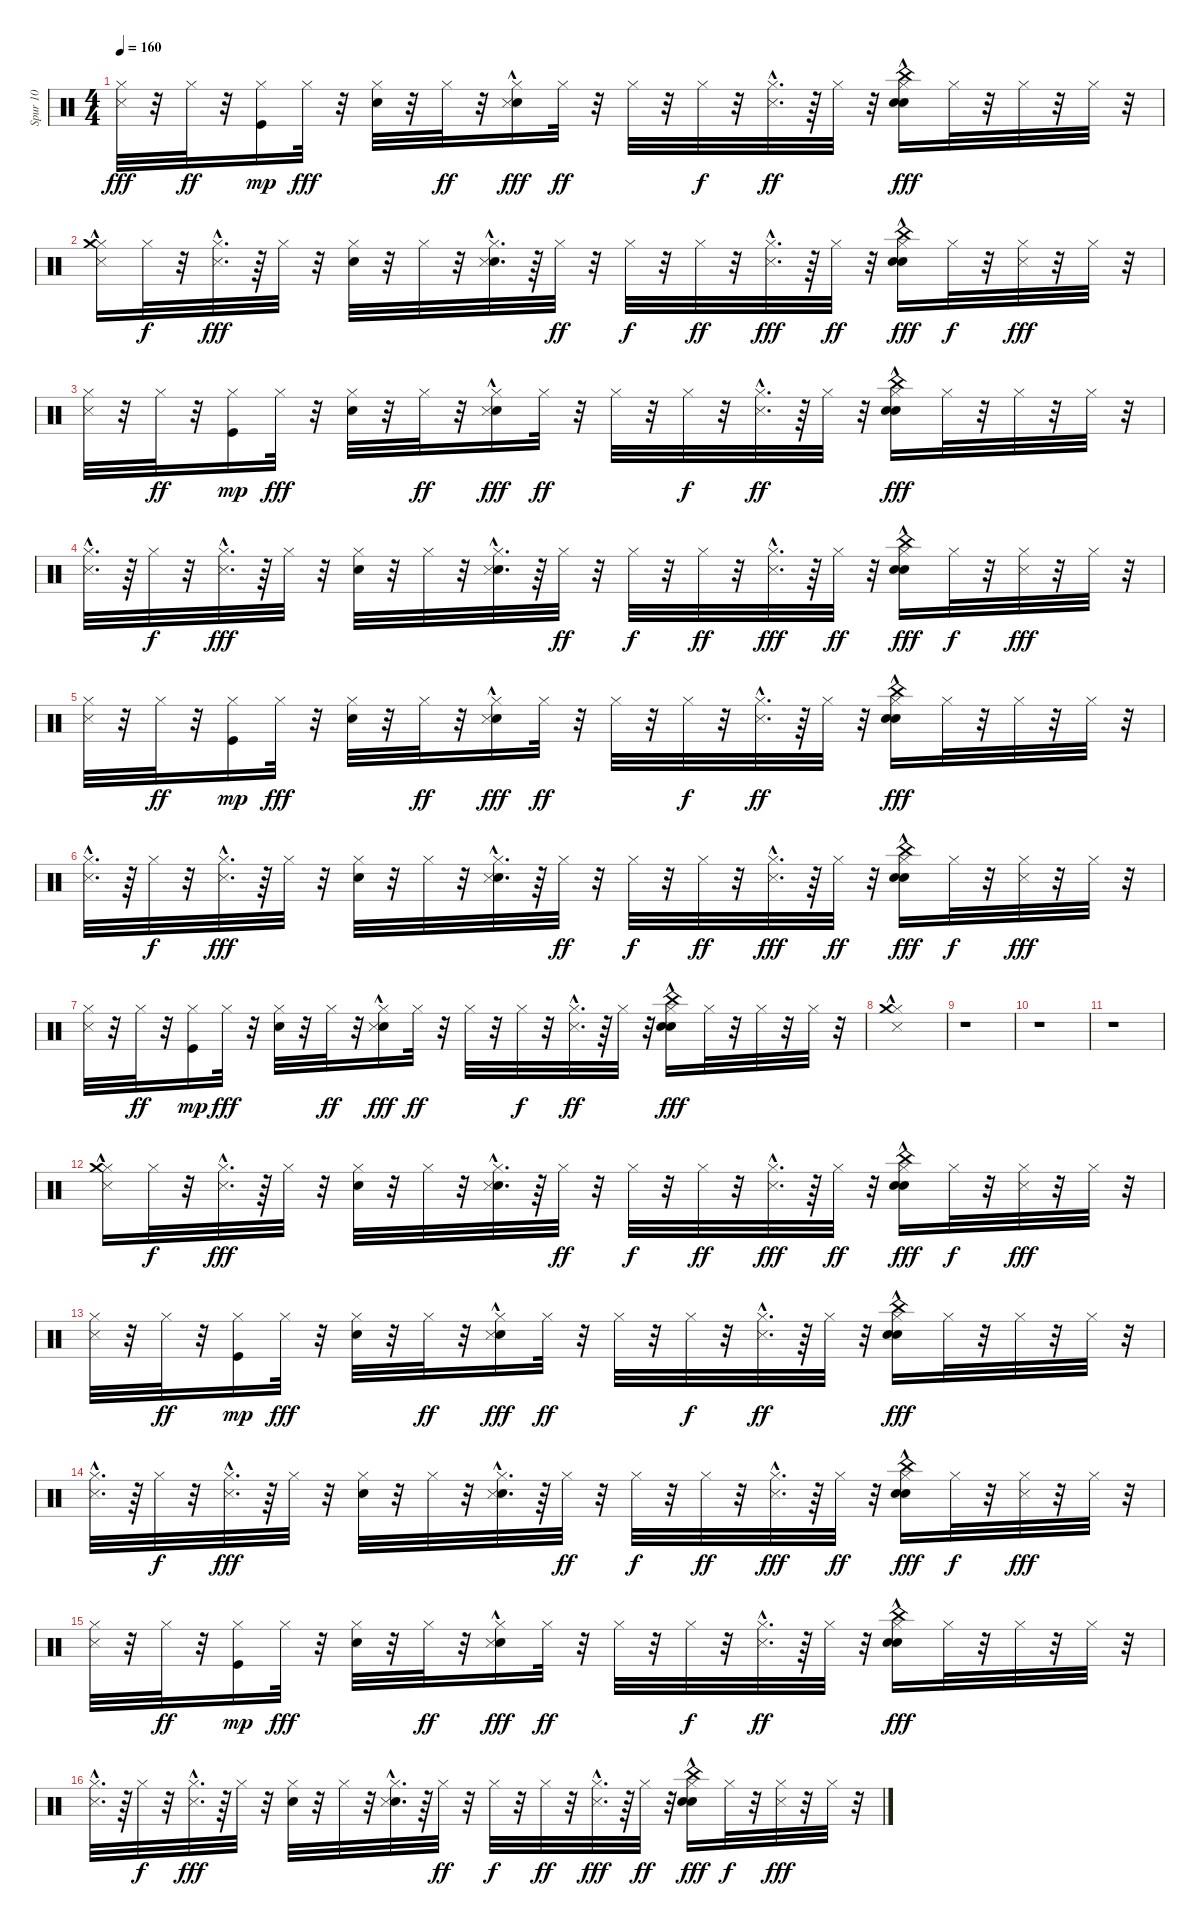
\track ("Spur 10" "Spur 10") {instrument percussion}
\staff {score}
\articulation defaults
\ts (4 4)
\tempo 160
\clef neutral
\ks c
("Hi-Hat (closed)" "Metronome (hit)").32{dy fff} r.32 "Hi-Hat (closed)".32{dy ff} r.32 ("Hi-Hat (closed)" "Kick (hit)").16{dy mp} "Hi-Hat (closed)".32{dy fff} r.32 ("Hi-Hat (closed)" "Snare (hit) 2").32 r.32 "Hi-Hat (closed)".32{dy ff} r.32 ("Hi-Hat (closed)" "Snare (hit) 2" "Metronome (hit)"{hac}).16{dy fff} "Hi-Hat (closed)".32{dy ff} r.32 "Hi-Hat (closed)".32 r.32 "Hi-Hat (closed)".32{dy f} r.32 ("Hi-Hat (closed)" "Metronome (hit)"{hac}).32{d dy ff} r.64 "Hi-Hat (closed)".32 r.32 ("Hi-Hat (closed)" "Snare (hit) 2"{hac} "China (hit)" "Hand Clap (hit)").16{dy fff} "Hi-Hat (closed)".32 r.32 "Hi-Hat (closed)".32 r.32 "Hi-Hat (closed)".32 r.32 |
("Hi-Hat (closed)" "Metronome (hit)"{hac} "Crash medium (hit)").16 "Hi-Hat (closed)".32{dy f} r.32 ("Hi-Hat (closed)" "Metronome (hit)"{hac}).32{d dy fff} r.64 "Hi-Hat (closed)".32 r.32 ("Hi-Hat (closed)" "Snare (hit) 2").32 r.32 "Hi-Hat (closed)".32 r.32 ("Hi-Hat (closed)" "Snare (hit) 2"{hac} "Metronome (hit)"{hac}).32{d} r.64 "Hi-Hat (closed)".32{dy ff} r.32 "Hi-Hat (closed)".32{dy f} r.32 "Hi-Hat (closed)".32{dy ff} r.32 ("Hi-Hat (closed)" "Metronome (hit)"{hac}).32{d dy fff} r.64 "Hi-Hat (closed)".32{dy ff} r.32 ("Hi-Hat (closed)" "Snare (hit) 2"{hac} "China (hit)" "Hand Clap (hit)").16{dy fff} "Hi-Hat (closed)".32{dy f} r.32 ("Hi-Hat (closed)" "Metronome (hit)").32{dy fff} r.32 "Hi-Hat (closed)".32 r.32 |
("Hi-Hat (closed)" "Metronome (hit)").32 r.32 "Hi-Hat (closed)".32{dy ff} r.32 ("Hi-Hat (closed)" "Kick (hit)").16{dy mp} "Hi-Hat (closed)".32{dy fff} r.32 ("Hi-Hat (closed)" "Snare (hit) 2").32 r.32 "Hi-Hat (closed)".32{dy ff} r.32 ("Hi-Hat (closed)" "Snare (hit) 2" "Metronome (hit)"{hac}).16{dy fff} "Hi-Hat (closed)".32{dy ff} r.32 "Hi-Hat (closed)".32 r.32 "Hi-Hat (closed)".32{dy f} r.32 ("Hi-Hat (closed)" "Metronome (hit)"{hac}).32{d dy ff} r.64 "Hi-Hat (closed)".32 r.32 ("Hi-Hat (closed)" "Snare (hit) 2"{hac} "China (hit)" "Hand Clap (hit)").16{dy fff} "Hi-Hat (closed)".32 r.32 "Hi-Hat (closed)".32 r.32 "Hi-Hat (closed)".32 r.32 |
("Hi-Hat (closed)" "Metronome (hit)"{hac}).32{d} r.64 "Hi-Hat (closed)".32{dy f} r.32 ("Hi-Hat (closed)" "Metronome (hit)"{hac}).32{d dy fff} r.64 "Hi-Hat (closed)".32 r.32 ("Hi-Hat (closed)" "Snare (hit) 2").32 r.32 "Hi-Hat (closed)".32 r.32 ("Hi-Hat (closed)" "Snare (hit) 2"{hac} "Metronome (hit)"{hac}).32{d} r.64 "Hi-Hat (closed)".32{dy ff} r.32 "Hi-Hat (closed)".32{dy f} r.32 "Hi-Hat (closed)".32{dy ff} r.32 ("Hi-Hat (closed)" "Metronome (hit)"{hac}).32{d dy fff} r.64 "Hi-Hat (closed)".32{dy ff} r.32 ("Hi-Hat (closed)" "Snare (hit) 2"{hac} "China (hit)" "Hand Clap (hit)").16{dy fff} "Hi-Hat (closed)".32{dy f} r.32 ("Hi-Hat (closed)" "Metronome (hit)").32{dy fff} r.32 "Hi-Hat (closed)".32 r.32 |
("Hi-Hat (closed)" "Metronome (hit)").32 r.32 "Hi-Hat (closed)".32{dy ff} r.32 ("Hi-Hat (closed)" "Kick (hit)").16{dy mp} "Hi-Hat (closed)".32{dy fff} r.32 ("Hi-Hat (closed)" "Snare (hit) 2").32 r.32 "Hi-Hat (closed)".32{dy ff} r.32 ("Hi-Hat (closed)" "Snare (hit) 2" "Metronome (hit)"{hac}).16{dy fff} "Hi-Hat (closed)".32{dy ff} r.32 "Hi-Hat (closed)".32 r.32 "Hi-Hat (closed)".32{dy f} r.32 ("Hi-Hat (closed)" "Metronome (hit)"{hac}).32{d dy ff} r.64 "Hi-Hat (closed)".32 r.32 ("Hi-Hat (closed)" "Snare (hit) 2"{hac} "China (hit)" "Hand Clap (hit)").16{dy fff} "Hi-Hat (closed)".32 r.32 "Hi-Hat (closed)".32 r.32 "Hi-Hat (closed)".32 r.32 |
("Hi-Hat (closed)" "Metronome (hit)"{hac}).32{d} r.64 "Hi-Hat (closed)".32{dy f} r.32 ("Hi-Hat (closed)" "Metronome (hit)"{hac}).32{d dy fff} r.64 "Hi-Hat (closed)".32 r.32 ("Hi-Hat (closed)" "Snare (hit) 2").32 r.32 "Hi-Hat (closed)".32 r.32 ("Hi-Hat (closed)" "Snare (hit) 2"{hac} "Metronome (hit)"{hac}).32{d} r.64 "Hi-Hat (closed)".32{dy ff} r.32 "Hi-Hat (closed)".32{dy f} r.32 "Hi-Hat (closed)".32{dy ff} r.32 ("Hi-Hat (closed)" "Metronome (hit)"{hac}).32{d dy fff} r.64 "Hi-Hat (closed)".32{dy ff} r.32 ("Hi-Hat (closed)" "Snare (hit) 2"{hac} "China (hit)" "Hand Clap (hit)").16{dy fff} "Hi-Hat (closed)".32{dy f} r.32 ("Hi-Hat (closed)" "Metronome (hit)").32{dy fff} r.32 "Hi-Hat (closed)".32 r.32 |
("Hi-Hat (closed)" "Metronome (hit)").32 r.32 "Hi-Hat (closed)".32{dy ff} r.32 ("Hi-Hat (closed)" "Kick (hit)").16{dy mp} "Hi-Hat (closed)".32{dy fff} r.32 ("Hi-Hat (closed)" "Snare (hit) 2").32 r.32 "Hi-Hat (closed)".32{dy ff} r.32 ("Hi-Hat (closed)" "Snare (hit) 2" "Metronome (hit)"{hac}).16{dy fff} "Hi-Hat (closed)".32{dy ff} r.32 "Hi-Hat (closed)".32 r.32 "Hi-Hat (closed)".32{dy f} r.32 ("Hi-Hat (closed)" "Metronome (hit)"{hac}).32{d dy ff} r.64 "Hi-Hat (closed)".32 r.32 ("Hi-Hat (closed)" "Snare (hit) 2"{hac} "China (hit)" "Hand Clap (hit)").16{dy fff} "Hi-Hat (closed)".32 r.32 "Hi-Hat (closed)".32 r.32 "Hi-Hat (closed)".32 r.32 |
("Hi-Hat (closed)" "Metronome (hit)"{hac} "Crash medium (hit)").1 |
r.1 |
r.1 |
r.1 |
("Hi-Hat (closed)" "Metronome (hit)"{hac} "Crash medium (hit)").16 "Hi-Hat (closed)".32{dy f} r.32 ("Hi-Hat (closed)" "Metronome (hit)"{hac}).32{d dy fff} r.64 "Hi-Hat (closed)".32 r.32 ("Hi-Hat (closed)" "Snare (hit) 2").32 r.32 "Hi-Hat (closed)".32 r.32 ("Hi-Hat (closed)" "Snare (hit) 2"{hac} "Metronome (hit)"{hac}).32{d} r.64 "Hi-Hat (closed)".32{dy ff} r.32 "Hi-Hat (closed)".32{dy f} r.32 "Hi-Hat (closed)".32{dy ff} r.32 ("Hi-Hat (closed)" "Metronome (hit)"{hac}).32{d dy fff} r.64 "Hi-Hat (closed)".32{dy ff} r.32 ("Hi-Hat (closed)" "Snare (hit) 2"{hac} "China (hit)" "Hand Clap (hit)").16{dy fff} "Hi-Hat (closed)".32{dy f} r.32 ("Hi-Hat (closed)" "Metronome (hit)").32{dy fff} r.32 "Hi-Hat (closed)".32 r.32 |
("Hi-Hat (closed)" "Metronome (hit)").32 r.32 "Hi-Hat (closed)".32{dy ff} r.32 ("Hi-Hat (closed)" "Kick (hit)").16{dy mp} "Hi-Hat (closed)".32{dy fff} r.32 ("Hi-Hat (closed)" "Snare (hit) 2").32 r.32 "Hi-Hat (closed)".32{dy ff} r.32 ("Hi-Hat (closed)" "Snare (hit) 2" "Metronome (hit)"{hac}).16{dy fff} "Hi-Hat (closed)".32{dy ff} r.32 "Hi-Hat (closed)".32 r.32 "Hi-Hat (closed)".32{dy f} r.32 ("Hi-Hat (closed)" "Metronome (hit)"{hac}).32{d dy ff} r.64 "Hi-Hat (closed)".32 r.32 ("Hi-Hat (closed)" "Snare (hit) 2"{hac} "China (hit)" "Hand Clap (hit)").16{dy fff} "Hi-Hat (closed)".32 r.32 "Hi-Hat (closed)".32 r.32 "Hi-Hat (closed)".32 r.32 |
("Hi-Hat (closed)" "Metronome (hit)"{hac}).32{d} r.64 "Hi-Hat (closed)".32{dy f} r.32 ("Hi-Hat (closed)" "Metronome (hit)"{hac}).32{d dy fff} r.64 "Hi-Hat (closed)".32 r.32 ("Hi-Hat (closed)" "Snare (hit) 2").32 r.32 "Hi-Hat (closed)".32 r.32 ("Hi-Hat (closed)" "Snare (hit) 2"{hac} "Metronome (hit)"{hac}).32{d} r.64 "Hi-Hat (closed)".32{dy ff} r.32 "Hi-Hat (closed)".32{dy f} r.32 "Hi-Hat (closed)".32{dy ff} r.32 ("Hi-Hat (closed)" "Metronome (hit)"{hac}).32{d dy fff} r.64 "Hi-Hat (closed)".32{dy ff} r.32 ("Hi-Hat (closed)" "Snare (hit) 2"{hac} "China (hit)" "Hand Clap (hit)").16{dy fff} "Hi-Hat (closed)".32{dy f} r.32 ("Hi-Hat (closed)" "Metronome (hit)").32{dy fff} r.32 "Hi-Hat (closed)".32 r.32 |
("Hi-Hat (closed)" "Metronome (hit)").32 r.32 "Hi-Hat (closed)".32{dy ff} r.32 ("Hi-Hat (closed)" "Kick (hit)").16{dy mp} "Hi-Hat (closed)".32{dy fff} r.32 ("Hi-Hat (closed)" "Snare (hit) 2").32 r.32 "Hi-Hat (closed)".32{dy ff} r.32 ("Hi-Hat (closed)" "Snare (hit) 2" "Metronome (hit)"{hac}).16{dy fff} "Hi-Hat (closed)".32{dy ff} r.32 "Hi-Hat (closed)".32 r.32 "Hi-Hat (closed)".32{dy f} r.32 ("Hi-Hat (closed)" "Metronome (hit)"{hac}).32{d dy ff} r.64 "Hi-Hat (closed)".32 r.32 ("Hi-Hat (closed)" "Snare (hit) 2"{hac} "China (hit)" "Hand Clap (hit)").16{dy fff} "Hi-Hat (closed)".32 r.32 "Hi-Hat (closed)".32 r.32 "Hi-Hat (closed)".32 r.32 |
("Hi-Hat (closed)" "Metronome (hit)"{hac}).32{d} r.64 "Hi-Hat (closed)".32{dy f} r.32 ("Hi-Hat (closed)" "Metronome (hit)"{hac}).32{d dy fff} r.64 "Hi-Hat (closed)".32 r.32 ("Hi-Hat (closed)" "Snare (hit) 2").32 r.32 "Hi-Hat (closed)".32 r.32 ("Hi-Hat (closed)" "Snare (hit) 2"{hac} "Metronome (hit)"{hac}).32{d} r.64 "Hi-Hat (closed)".32{dy ff} r.32 "Hi-Hat (closed)".32{dy f} r.32 "Hi-Hat (closed)".32{dy ff} r.32 ("Hi-Hat (closed)" "Metronome (hit)"{hac}).32{d dy fff} r.64 "Hi-Hat (closed)".32{dy ff} r.32 ("Hi-Hat (closed)" "Snare (hit) 2"{hac} "China (hit)" "Hand Clap (hit)").16{dy fff} "Hi-Hat (closed)".32{dy f} r.32 ("Hi-Hat (closed)" "Metronome (hit)").32{dy fff} r.32 "Hi-Hat (closed)".32 r.32
